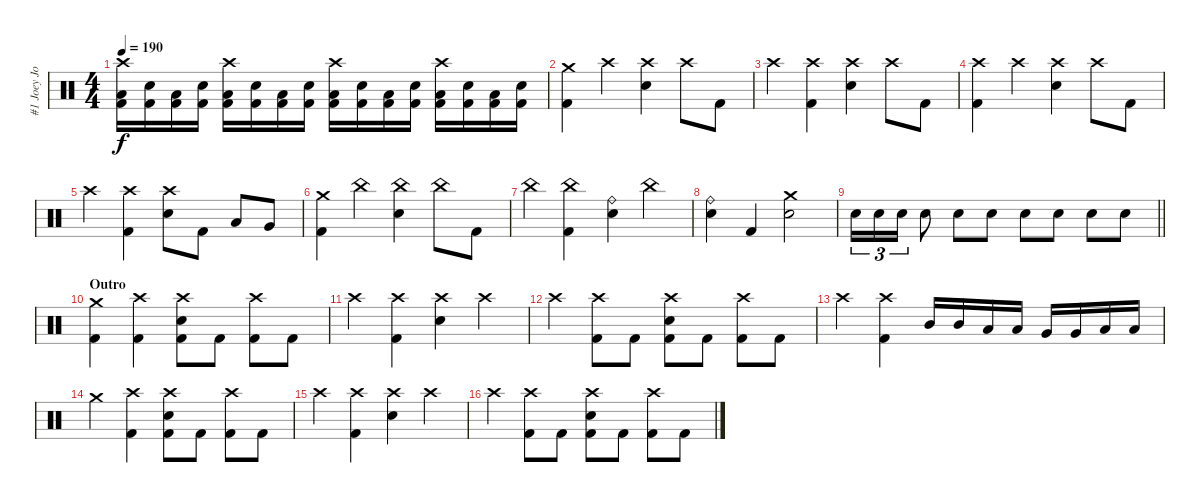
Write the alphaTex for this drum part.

\track ("#1 Joey Jordison" "#1 Joey Jo") {instrument percussion}
\staff {score}
\articulation defaults
\ts (4 4)
\tempo 190
\clef neutral
\ks c
("Crash high (hit)" "Low Floor Tom (hit)" "Kick (hit) 2").16{dy f} ("Electric Snare (hit)" "Kick (hit) 2").16 ("Low Floor Tom (hit)" "Kick (hit) 2").16 ("Electric Snare (hit)" "Kick (hit) 2").16 ("Crash high (hit)" "Low Floor Tom (hit)" "Kick (hit) 2").16 ("Electric Snare (hit)" "Kick (hit) 2").16 ("Low Floor Tom (hit)" "Kick (hit) 2").16 ("Electric Snare (hit)" "Kick (hit) 2").16 ("Crash high (hit)" "Low Floor Tom (hit)" "Kick (hit) 2").16 ("Electric Snare (hit)" "Kick (hit) 2").16 ("Low Floor Tom (hit)" "Kick (hit) 2").16 ("Electric Snare (hit)" "Kick (hit) 2").16 ("Crash high (hit)" "Low Floor Tom (hit)" "Kick (hit) 2").16 ("Electric Snare (hit)" "Kick (hit) 2").16 ("Low Floor Tom (hit)" "Kick (hit) 2").16 ("Electric Snare (hit)" "Kick (hit) 2").16 |
("Crash medium (hit)" "Kick (hit) 2").4 "Crash high (hit)".4 ("Crash high (hit)" "Electric Snare (hit)").4 "Crash high (hit)".8 "Kick (hit) 2".8 |
"Crash high (hit)".4 ("Crash high (hit)" "Kick (hit) 2").4 ("Crash high (hit)" "Electric Snare (hit)").4 "Crash high (hit)".8 "Kick (hit) 2".8 |
("Crash high (hit)" "Kick (hit) 2").4 "Crash high (hit)".4 ("Crash high (hit)" "Electric Snare (hit)").4 "Crash high (hit)".8 "Kick (hit) 2".8 |
"Crash high (hit)".4 ("Crash high (hit)" "Kick (hit) 2").4 ("Crash high (hit)" "Electric Snare (hit)").8 "Kick (hit) 2".8 "Low Tom (hit)".8 "Very Low Tom (hit)".8 |
("Crash medium (hit)" "Kick (hit) 2").4 "China (hit)".4 ("China (hit)" "Electric Snare (hit)").4 "China (hit)".8 "Kick (hit) 2".8 |
"China (hit)".4 ("China (hit)" "Kick (hit) 2").4 ("Ride (bell)" "Electric Snare (hit)").4 "China (hit)".4 |
("Ride (bell)" "Electric Snare (hit)").4 "Kick (hit) 2".4 ("Crash medium (hit)" "Electric Snare (hit)").2 |
\barLineRight lightlight "Electric Snare (hit)".16{tu (3 2)} "Electric Snare (hit)".16{tu (3 2)} "Electric Snare (hit)".16{tu (3 2)} "Electric Snare (hit)".8 "Electric Snare (hit)".8 "Electric Snare (hit)".8 "Electric Snare (hit)".8 "Electric Snare (hit)".8 "Electric Snare (hit)".8 "Electric Snare (hit)".8
|
\section ("" "Outro")
("Crash medium (hit)" "Kick (hit) 2").4 ("Crash high (hit)" "Kick (hit) 2").4 ("Crash high (hit)" "Electric Snare (hit)" "Kick (hit) 2").8 "Kick (hit) 2".8 ("Crash high (hit)" "Kick (hit) 2").8 "Kick (hit) 2".8 |
"Crash high (hit)".4 ("Crash high (hit)" "Kick (hit) 2").4 ("Crash high (hit)" "Electric Snare (hit)").4 "Crash high (hit)".4 |
"Crash high (hit)".4 ("Crash high (hit)" "Kick (hit) 2").8 "Kick (hit) 2".8 ("Crash high (hit)" "Electric Snare (hit)" "Kick (hit) 2").8 "Kick (hit) 2".8 ("Crash high (hit)" "Kick (hit) 2").8 "Kick (hit) 2".8 |
"Crash high (hit)".4 ("Crash high (hit)" "Kick (hit) 2").4 "Mid Tom (hit)".16 "Mid Tom (hit)".16 "Low Tom (hit)".16 "Low Tom (hit)".16 "Very Low Tom (hit)".16 "Very Low Tom (hit)".16 "Low Floor Tom (hit)".16 "Low Floor Tom (hit)".16 |
"Crash medium (hit)".4 ("Crash high (hit)" "Kick (hit) 2").4 ("Crash high (hit)" "Electric Snare (hit)" "Kick (hit) 2").8 "Kick (hit) 2".8 ("Crash high (hit)" "Kick (hit) 2").8 "Kick (hit) 2".8 |
"Crash high (hit)".4 ("Crash high (hit)" "Kick (hit) 2").4 ("Crash high (hit)" "Electric Snare (hit)").4 "Crash high (hit)".4 |
"Crash high (hit)".4 ("Crash high (hit)" "Kick (hit) 2").8 "Kick (hit) 2".8 ("Crash high (hit)" "Electric Snare (hit)" "Kick (hit) 2").8 "Kick (hit) 2".8 ("Crash high (hit)" "Kick (hit) 2").8 "Kick (hit) 2".8
